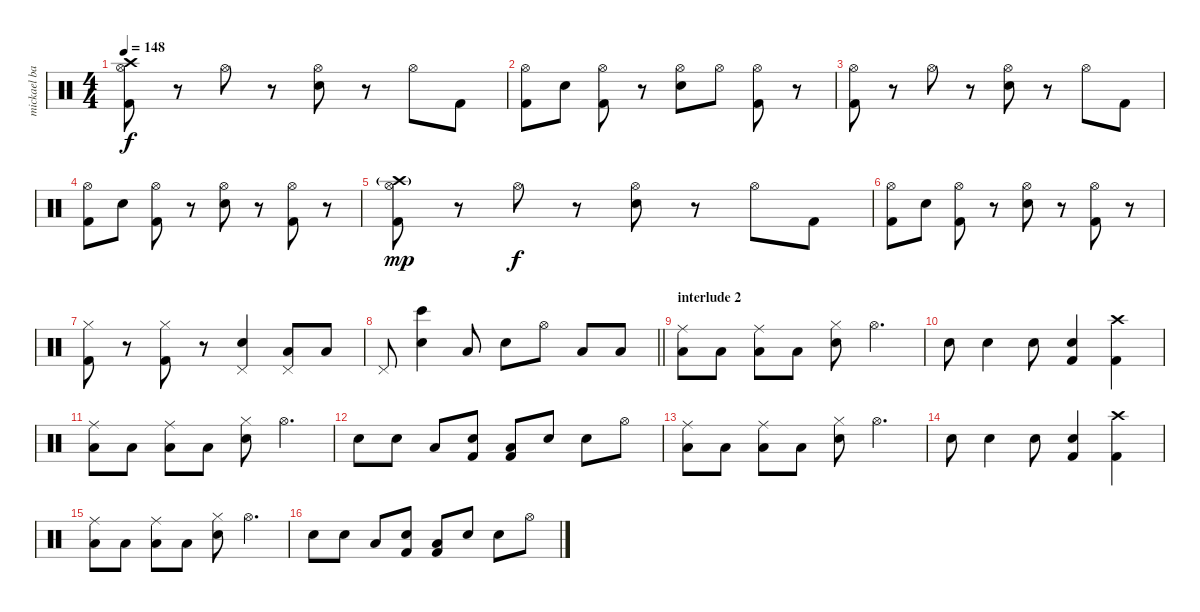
\track ("mickael barker drums" "mickael ba") {instrument percussion}
\staff {score}
\articulation defaults
\ts (4 4)
\tempo 148
\clef neutral
\ks c
("Crash high (hit)" "Hi-Hat (open)" "Kick (hit) 2").8{dy f} r.8 "Hi-Hat (open)".8 r.8 ("Hi-Hat (open)" "Snare (hit) 2").8 r.8 "Hi-Hat (open)".8 "Kick (hit) 2".8 |
("Hi-Hat (open)" "Kick (hit) 2").8 "Snare (hit) 2".8 ("Hi-Hat (open)" "Kick (hit) 2").8 r.8 ("Hi-Hat (open)" "Snare (hit) 2").8 "Hi-Hat (open)".8 ("Hi-Hat (open)" "Kick (hit) 2").8 r.8 |
("Hi-Hat (open)" "Kick (hit) 2").8 r.8 "Hi-Hat (open)".8 r.8 ("Hi-Hat (open)" "Snare (hit) 2").8 r.8 "Hi-Hat (open)".8 "Kick (hit) 2".8 |
("Hi-Hat (open)" "Kick (hit) 2").8 "Snare (hit) 2".8 ("Hi-Hat (open)" "Kick (hit) 2").8 r.8 ("Hi-Hat (open)" "Snare (hit) 2").8 r.8 ("Hi-Hat (open)" "Kick (hit) 2").8 r.8 |
("Crash high (hit)"{g} "Hi-Hat (open)" "Kick (hit) 2").8{dy mp} r.8 "Hi-Hat (open)".8{dy f} r.8 ("Hi-Hat (open)" "Snare (hit) 2").8 r.8 "Hi-Hat (open)".8 "Kick (hit) 2".8 |
("Hi-Hat (open)" "Kick (hit) 2").8 "Snare (hit) 2".8 ("Hi-Hat (open)" "Kick (hit) 2").8 r.8 ("Hi-Hat (open)" "Snare (hit) 2").8 r.8 ("Hi-Hat (open)" "Kick (hit) 2").8 r.8 |
("Hi-Hat (closed)" "Kick (hit) 2").8 r.8 ("Hi-Hat (closed)" "Kick (hit) 2").8 r.8 ("Pedal Hi-Hat (hit)" "Snare (hit) 2").4 ("Pedal Hi-Hat (hit)" "Low Tom (hit)").8 "Low Tom (hit)".8 |
\barLineRight lightlight "Pedal Hi-Hat (hit)".8
("Bongo High (hit)" "Snare (hit) 2").4 "Low Tom (hit)".8 "Snare (hit) 2".8 "Hi-Hat (open)".8 "Low Tom (hit)".8 "Low Floor Tom (hit)".8 |
\section ("" "interlude 2")
("Ride (middle)" "Low Floor Tom (hit)").8 "Low Floor Tom (hit)".8 ("Ride (middle)" "Low Floor Tom (hit)").8 "Low Floor Tom (hit)".8 ("Hi-Hat (closed)" "Snare (hit) 2").8 "Hi-Hat (open)".4{d} |
"Snare (hit) 2".8 "Snare (hit) 2".4 "Snare (hit) 2".8 ("Snare (hit) 2" "Kick (hit) 2").4 ("Crash high (hit)" "Kick (hit) 2").4 |
("Ride (middle)" "Low Floor Tom (hit)").8 "Low Floor Tom (hit)".8 ("Ride (middle)" "Low Floor Tom (hit)").8 "Low Floor Tom (hit)".8 ("Hi-Hat (closed)" "Snare (hit) 2").8 "Hi-Hat (open)".4{d} |
"Snare (hit) 2".8 "Snare (hit) 2".8 "Low Floor Tom (hit)".8 ("Snare (hit) 2" "Kick (hit) 2").8 ("Low Floor Tom (hit)" "Kick (hit) 2").8 "Snare (hit) 2".8 "Snare (hit) 2".8 "Hi-Hat (open)".8 |
("Ride (middle)" "Low Floor Tom (hit)").8 "Low Floor Tom (hit)".8 ("Ride (middle)" "Low Floor Tom (hit)").8 "Low Floor Tom (hit)".8 ("Hi-Hat (closed)" "Snare (hit) 2").8 "Hi-Hat (open)".4{d} |
"Snare (hit) 2".8 "Snare (hit) 2".4 "Snare (hit) 2".8 ("Snare (hit) 2" "Kick (hit) 2").4 ("Crash high (hit)" "Kick (hit) 2").4 |
("Ride (middle)" "Low Floor Tom (hit)").8 "Low Floor Tom (hit)".8 ("Ride (middle)" "Low Floor Tom (hit)").8 "Low Floor Tom (hit)".8 ("Hi-Hat (closed)" "Snare (hit) 2").8 "Hi-Hat (open)".4{d} |
"Snare (hit) 2".8 "Snare (hit) 2".8 "Low Floor Tom (hit)".8 ("Snare (hit) 2" "Kick (hit) 2").8 ("Low Floor Tom (hit)" "Kick (hit) 2").8 "Snare (hit) 2".8 "Snare (hit) 2".8 "Hi-Hat (open)".8
